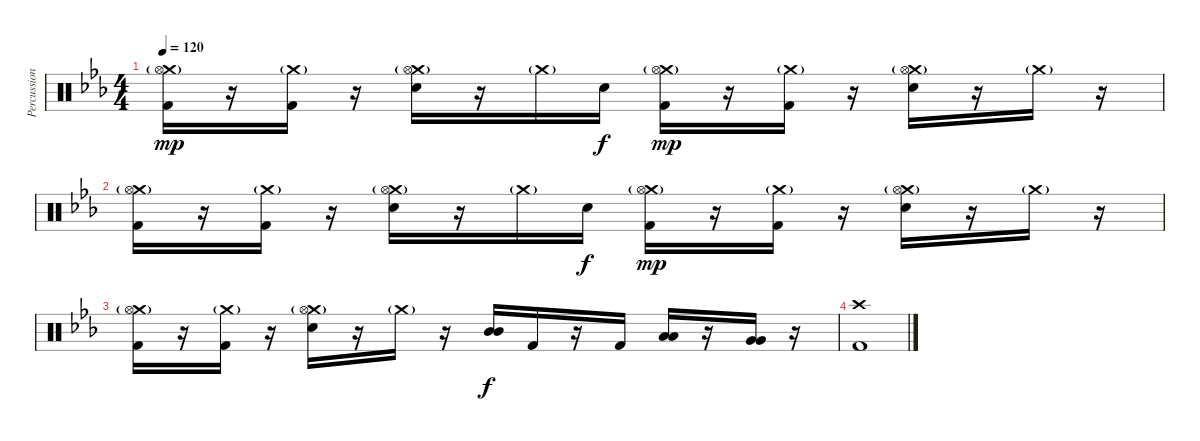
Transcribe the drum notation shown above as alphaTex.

\track ("Percussion" "Percussion") {instrument percussion}
\staff {score}
\articulation defaults
\ts (4 4)
\tempo 120
\clef neutral
\ks eb
("Crash medium (hit)"{g} "Hi-Hat (open)" "Kick (hit) 2").16{dy mp} r.16 ("Crash medium (hit)"{g} "Kick (hit) 2").16 r.16 ("Crash medium (hit)"{g} "Hi-Hat (open)" "Electric Snare (hit)").16 r.16 "Crash medium (hit)"{g}.16 "Electric Snare (hit)".16{dy f} ("Crash medium (hit)"{g} "Hi-Hat (open)" "Kick (hit) 2").16{dy mp} r.16 ("Crash medium (hit)"{g} "Kick (hit) 2").16 r.16 ("Crash medium (hit)"{g} "Hi-Hat (open)" "Electric Snare (hit)").16 r.16 "Crash medium (hit)"{g}.16 r.16 |
("Crash medium (hit)"{g} "Hi-Hat (open)" "Kick (hit) 2").16 r.16 ("Crash medium (hit)"{g} "Kick (hit) 2").16 r.16 ("Crash medium (hit)"{g} "Hi-Hat (open)" "Electric Snare (hit)").16 r.16 "Crash medium (hit)"{g}.16 "Electric Snare (hit)".16{dy f} ("Crash medium (hit)"{g} "Hi-Hat (open)" "Kick (hit) 2").16{dy mp} r.16 ("Crash medium (hit)"{g} "Kick (hit) 2").16 r.16 ("Crash medium (hit)"{g} "Hi-Hat (open)" "Electric Snare (hit)").16 r.16 "Crash medium (hit)"{g}.16 r.16 |
("Crash medium (hit)"{g} "Hi-Hat (open)" "Kick (hit) 2").16 r.16 ("Crash medium (hit)"{g} "Kick (hit) 2").16 r.16 ("Crash medium (hit)"{g} "Hi-Hat (open)" "Electric Snare (hit)").16 r.16 "Crash medium (hit)"{g}.16 r.16 ("Mid Tom (hit)" "Mid Tom (hit)").16{bd 120 dy f} "Kick (hit) 2".16 r.16 "Kick (hit) 2".16 ("Low Tom (hit)" "Low Tom (hit)").16{bd 120} r.16 ("Very Low Tom (hit)" "Very Low Tom (hit)").16{bd 120} r.16 |
("Crash high (hit)" "Kick (hit) 2").1
